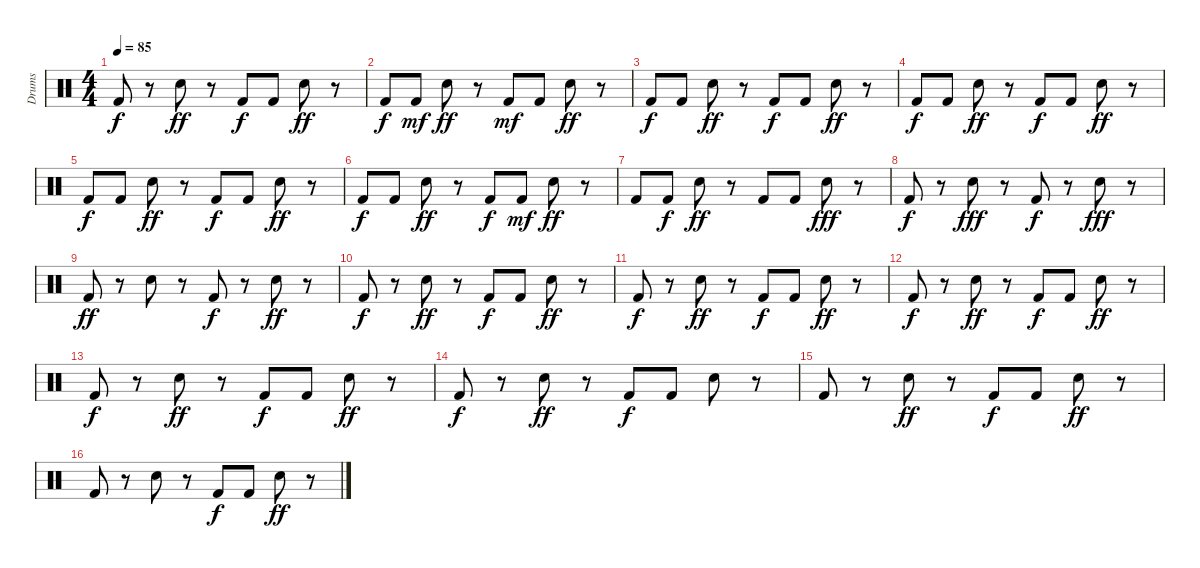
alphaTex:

\track ("Drums               " "Drums     ") {instrument percussion}
\staff {score}
\articulation defaults
\ts (4 4)
\tempo 85
\clef neutral
\ks c "Kick (hit) 2".8{dy f}
r.8 "Electric Snare (hit)".8{dy ff} r.8 "Kick (hit) 2".8{dy f} "Kick (hit) 2".8 "Electric Snare (hit)".8{dy ff} r.8 |
"Kick (hit) 2".8{dy f} "Kick (hit) 2".8{dy mf} "Electric Snare (hit)".8{dy ff} r.8 "Kick (hit) 2".8{dy mf} "Kick (hit) 2".8 "Electric Snare (hit)".8{dy ff} r.8 |
"Kick (hit) 2".8{dy f} "Kick (hit) 2".8 "Electric Snare (hit)".8{dy ff} r.8 "Kick (hit) 2".8{dy f} "Kick (hit) 2".8 "Electric Snare (hit)".8{dy ff} r.8 |
"Kick (hit) 2".8{dy f} "Kick (hit) 2".8 "Electric Snare (hit)".8{dy ff} r.8 "Kick (hit) 2".8{dy f} "Kick (hit) 2".8 "Electric Snare (hit)".8{dy ff} r.8 |
"Kick (hit) 2".8{dy f} "Kick (hit) 2".8 "Electric Snare (hit)".8{dy ff} r.8 "Kick (hit) 2".8{dy f} "Kick (hit) 2".8 "Electric Snare (hit)".8{dy ff} r.8 |
"Kick (hit) 2".8{dy f} "Kick (hit) 2".8 "Electric Snare (hit)".8{dy ff} r.8 "Kick (hit) 2".8{dy f} "Kick (hit) 2".8{dy mf} "Electric Snare (hit)".8{dy ff} r.8 |
"Kick (hit) 2".8 "Kick (hit) 2".8{dy f} "Electric Snare (hit)".8{dy ff} r.8 "Kick (hit) 2".8 "Kick (hit) 2".8 "Electric Snare (hit)".8{dy fff} r.8 |
"Kick (hit) 2".8{dy f} r.8 "Electric Snare (hit)".8{dy fff} r.8 "Kick (hit) 2".8{dy f} r.8 "Electric Snare (hit)".8{dy fff} r.8 |
"Kick (hit) 2".8{dy ff} r.8 "Electric Snare (hit)".8 r.8 "Kick (hit) 2".8{dy f} r.8 "Electric Snare (hit)".8{dy ff} r.8 |
"Kick (hit) 2".8{dy f} r.8 "Electric Snare (hit)".8{dy ff} r.8 "Kick (hit) 2".8{dy f} "Kick (hit) 2".8 "Electric Snare (hit)".8{dy ff} r.8 |
"Kick (hit) 2".8{dy f} r.8 "Electric Snare (hit)".8{dy ff} r.8 "Kick (hit) 2".8{dy f} "Kick (hit) 2".8 "Electric Snare (hit)".8{dy ff} r.8 |
"Kick (hit) 2".8{dy f} r.8 "Electric Snare (hit)".8{dy ff} r.8 "Kick (hit) 2".8{dy f} "Kick (hit) 2".8 "Electric Snare (hit)".8{dy ff} r.8 |
"Kick (hit) 2".8{dy f} r.8 "Electric Snare (hit)".8{dy ff} r.8 "Kick (hit) 2".8{dy f} "Kick (hit) 2".8 "Electric Snare (hit)".8{dy ff} r.8 |
"Kick (hit) 2".8{dy f} r.8 "Electric Snare (hit)".8{dy ff} r.8 "Kick (hit) 2".8{dy f} "Kick (hit) 2".8 "Electric Snare (hit)".8 r.8 |
"Kick (hit) 2".8 r.8 "Electric Snare (hit)".8{dy ff} r.8 "Kick (hit) 2".8{dy f} "Kick (hit) 2".8 "Electric Snare (hit)".8{dy ff} r.8 |
"Kick (hit) 2".8 r.8 "Electric Snare (hit)".8 r.8 "Kick (hit) 2".8{dy f} "Kick (hit) 2".8 "Electric Snare (hit)".8{dy ff} r.8
